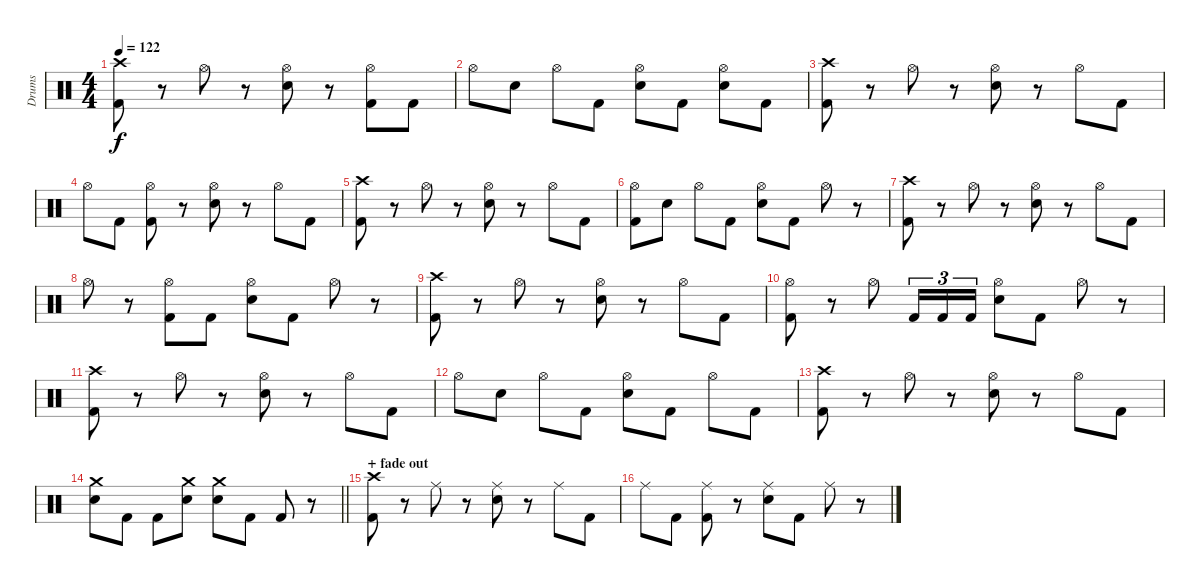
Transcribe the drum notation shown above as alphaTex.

\track ("Drums" "Drums") {instrument percussion}
\staff {score}
\articulation defaults
\ts (4 4)
\tempo 122
\clef neutral
\ks c
("Crash high (hit)" "Kick (hit) 2").8{dy f} r.8 "Hi-Hat (open)".8 r.8 ("Hi-Hat (open)" "Electric Snare (hit)").8 r.8 ("Hi-Hat (open)" "Kick (hit) 2").8 "Kick (hit) 2".8 |
"Hi-Hat (open)".8 "Electric Snare (hit)".8 "Hi-Hat (open)".8 "Kick (hit) 2".8 ("Hi-Hat (open)" "Electric Snare (hit)").8 "Kick (hit) 2".8 ("Hi-Hat (open)" "Electric Snare (hit)").8 "Kick (hit) 2".8 |
("Crash high (hit)" "Kick (hit) 2").8 r.8 "Hi-Hat (open)".8 r.8 ("Hi-Hat (open)" "Electric Snare (hit)").8 r.8 "Hi-Hat (open)".8 "Kick (hit) 2".8 |
"Hi-Hat (open)".8 "Kick (hit) 2".8 ("Hi-Hat (open)" "Kick (hit) 2").8 r.8 ("Hi-Hat (open)" "Electric Snare (hit)").8 r.8 "Hi-Hat (open)".8 "Kick (hit) 2".8 |
("Crash high (hit)" "Kick (hit) 2").8 r.8 "Hi-Hat (open)".8 r.8 ("Hi-Hat (open)" "Electric Snare (hit)").8 r.8 "Hi-Hat (open)".8 "Kick (hit) 2".8 |
("Hi-Hat (open)" "Kick (hit) 2").8 "Electric Snare (hit)".8 "Hi-Hat (open)".8 "Kick (hit) 2".8 ("Hi-Hat (open)" "Electric Snare (hit)").8 "Kick (hit) 2".8 "Hi-Hat (open)".8 r.8 |
("Crash high (hit)" "Kick (hit) 2").8 r.8 "Hi-Hat (open)".8 r.8 ("Hi-Hat (open)" "Electric Snare (hit)").8 r.8 "Hi-Hat (open)".8 "Kick (hit) 2".8 |
"Hi-Hat (open)".8 r.8 ("Hi-Hat (open)" "Kick (hit) 2").8 "Kick (hit) 2".8 ("Hi-Hat (open)" "Electric Snare (hit)").8 "Kick (hit) 2".8 "Hi-Hat (open)".8 r.8 |
("Crash high (hit)" "Kick (hit) 2").8 r.8 "Hi-Hat (open)".8 r.8 ("Hi-Hat (open)" "Electric Snare (hit)").8 r.8 "Hi-Hat (open)".8 "Kick (hit) 2".8 |
("Hi-Hat (open)" "Kick (hit) 2").8 r.8 "Hi-Hat (open)".8 "Kick (hit) 2".16{tu (3 2)} "Kick (hit) 2".16{tu (3 2)} "Kick (hit) 2".16{tu (3 2)} ("Hi-Hat (open)" "Electric Snare (hit)").8 "Kick (hit) 2".8 "Hi-Hat (open)".8 r.8 |
("Crash high (hit)" "Kick (hit) 2").8 r.8 "Hi-Hat (open)".8 r.8 ("Hi-Hat (open)" "Electric Snare (hit)").8 r.8 "Hi-Hat (open)".8 "Kick (hit) 2".8 |
"Hi-Hat (open)".8 "Electric Snare (hit)".8 "Hi-Hat (open)".8 "Kick (hit) 2".8 ("Hi-Hat (open)" "Electric Snare (hit)").8 "Kick (hit) 2".8 "Hi-Hat (open)".8 "Kick (hit) 2".8 |
("Crash high (hit)" "Kick (hit) 2").8 r.8 "Hi-Hat (open)".8 r.8 ("Hi-Hat (open)" "Electric Snare (hit)").8 r.8 "Hi-Hat (open)".8 "Kick (hit) 2".8 |
\barLineRight lightlight
("Crash medium (hit)" "Electric Snare (hit)").8 "Kick (hit) 2".8 "Kick (hit) 2".8 ("Crash medium (hit)" "Electric Snare (hit)").8 ("Crash medium (hit)" "Electric Snare (hit)").8 "Kick (hit) 2".8 "Kick (hit) 2".8 r.8 |
\section ("" "+ fade out")
("Crash high (hit)" "Kick (hit) 2").8{volume 11} r.8 "Ride (middle)".8 r.8 ("Ride (middle)" "Electric Snare (hit)").8 r.8 "Ride (middle)".8 "Kick (hit) 2".8 |
"Ride (middle)".8 "Kick (hit) 2".8 ("Ride (middle)" "Kick (hit) 2").8 r.8 ("Ride (middle)" "Electric Snare (hit)").8 "Kick (hit) 2".8 "Ride (middle)".8 r.8
